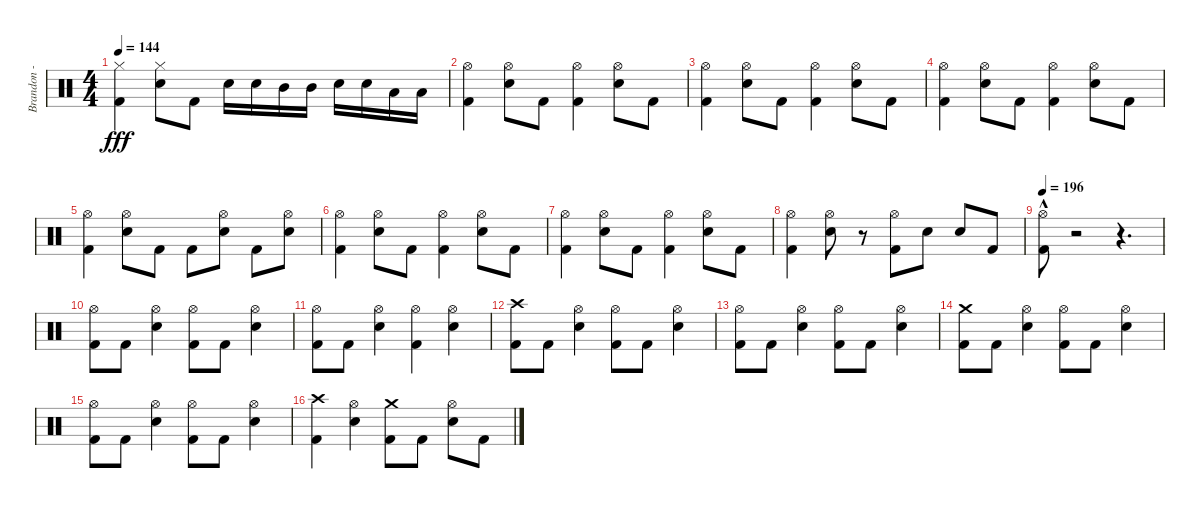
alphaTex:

\track ("Brandon - Drums" "Brandon - ") {instrument percussion}
\staff {score}
\articulation defaults
\ts (4 4)
\tempo 144
\clef neutral
\ks c
("Hi-Hat (closed)" "Kick (hit) 2").4{dy fff} ("Hi-Hat (closed)" "Snare (hit) 2").8 "Kick (hit) 2".8 "Snare (hit) 2".16 "Snare (hit) 2".16 "Mid Tom (hit)".16 "Mid Tom (hit)".16 "Snare (hit) 2".16 "Snare (hit) 2".16 "Low Tom (hit)".16 "Low Tom (hit)".16 |
("Hi-Hat (open)" "Kick (hit) 2").4 ("Hi-Hat (open)" "Snare (hit) 2").8 "Kick (hit) 2".8 ("Hi-Hat (open)" "Kick (hit) 2").4 ("Hi-Hat (open)" "Snare (hit) 2").8 "Kick (hit) 2".8 |
("Hi-Hat (open)" "Kick (hit) 2").4 ("Hi-Hat (open)" "Snare (hit) 2").8 "Kick (hit) 2".8 ("Hi-Hat (open)" "Kick (hit) 2").4 ("Hi-Hat (open)" "Snare (hit) 2").8 "Kick (hit) 2".8 |
("Hi-Hat (open)" "Kick (hit) 2").4 ("Hi-Hat (open)" "Snare (hit) 2").8 "Kick (hit) 2".8 ("Hi-Hat (open)" "Kick (hit) 2").4 ("Hi-Hat (open)" "Snare (hit) 2").8 "Kick (hit) 2".8 |
("Hi-Hat (open)" "Kick (hit) 2").4 ("Hi-Hat (open)" "Snare (hit) 2").8 "Kick (hit) 2".8 "Kick (hit) 2".8 ("Hi-Hat (open)" "Snare (hit) 2").8 "Kick (hit) 2".8 ("Hi-Hat (open)" "Snare (hit) 2").8 |
("Hi-Hat (open)" "Kick (hit) 2").4 ("Hi-Hat (open)" "Snare (hit) 2").8 "Kick (hit) 2".8 ("Hi-Hat (open)" "Kick (hit) 2").4 ("Hi-Hat (open)" "Snare (hit) 2").8 "Kick (hit) 2".8 |
("Hi-Hat (open)" "Kick (hit) 2").4 ("Hi-Hat (open)" "Snare (hit) 2").8 "Kick (hit) 2".8 ("Hi-Hat (open)" "Kick (hit) 2").4 ("Hi-Hat (open)" "Snare (hit) 2").8 "Kick (hit) 2".8 |
("Hi-Hat (open)" "Kick (hit) 2").4 ("Hi-Hat (open)" "Snare (hit) 2").8 r.8 ("Hi-Hat (open)" "Kick (hit) 2").8 "Snare (hit) 2".8 "Snare (hit) 2".8 "Kick (hit) 2".8 |
\tempo 196
("Hi-Hat (open)" "Kick (hit) 2"{hac}).8 r.2 r.4{d} |
("Hi-Hat (open)" "Kick (hit) 2").8 "Kick (hit) 2".8 ("Hi-Hat (open)" "Snare (hit) 2").4 ("Hi-Hat (open)" "Kick (hit) 2").8 "Kick (hit) 2".8 ("Hi-Hat (open)" "Snare (hit) 2").4 |
("Hi-Hat (open)" "Kick (hit) 2").8 "Kick (hit) 2".8 ("Hi-Hat (open)" "Snare (hit) 2").4 ("Hi-Hat (open)" "Kick (hit) 2").4 ("Hi-Hat (open)" "Snare (hit) 2").4 |
("Crash high (hit)" "Kick (hit) 2").8 "Kick (hit) 2".8 ("Hi-Hat (open)" "Snare (hit) 2").4 ("Hi-Hat (open)" "Kick (hit) 2").8 "Kick (hit) 2".8 ("Hi-Hat (open)" "Snare (hit) 2").4 |
("Hi-Hat (open)" "Kick (hit) 2").8 "Kick (hit) 2".8 ("Hi-Hat (open)" "Snare (hit) 2").4 ("Hi-Hat (open)" "Kick (hit) 2").8 "Kick (hit) 2".8 ("Hi-Hat (open)" "Snare (hit) 2").4 |
("Crash medium (hit)" "Kick (hit) 2").8 "Kick (hit) 2".8 ("Hi-Hat (open)" "Snare (hit) 2").4 ("Hi-Hat (open)" "Kick (hit) 2").8 "Kick (hit) 2".8 ("Hi-Hat (open)" "Snare (hit) 2").4 |
("Hi-Hat (open)" "Kick (hit) 2").8 "Kick (hit) 2".8 ("Hi-Hat (open)" "Snare (hit) 2").4 ("Hi-Hat (open)" "Kick (hit) 2").8 "Kick (hit) 2".8 ("Hi-Hat (open)" "Snare (hit) 2").4 |
("Crash high (hit)" "Kick (hit) 2").4 ("Hi-Hat (open)" "Snare (hit) 2").4 ("Crash medium (hit)" "Kick (hit) 2").8 "Kick (hit) 2".8 ("Hi-Hat (open)" "Snare (hit) 2").8 "Kick (hit) 2".8
